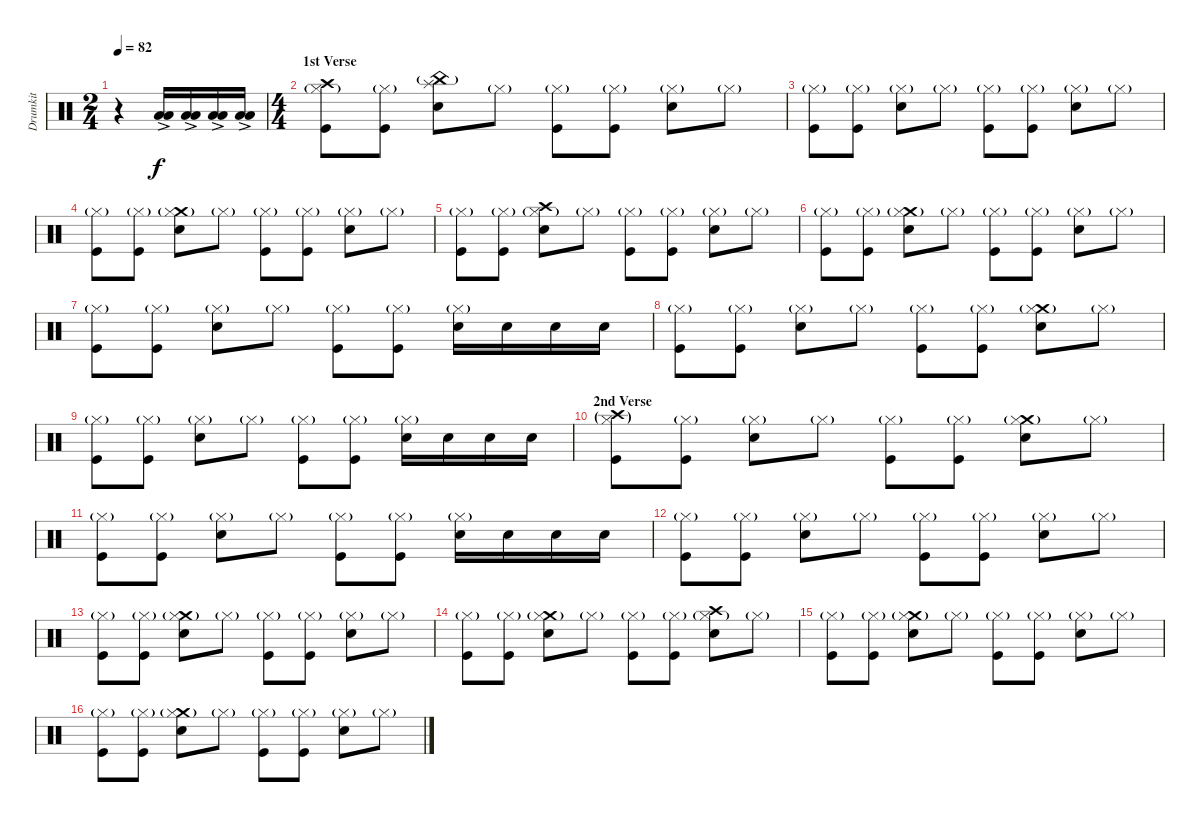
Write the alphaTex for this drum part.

\track ("Drumkit" "Drumkit") {instrument percussion}
\staff {score}
\articulation defaults
\ts (2 4)
\tempo 82
\clef neutral
\ks c
r.4{dy f} ("Low Tom (hit)" "Low Floor Tom (hit)"{ac}).16 ("Low Tom (hit)" "Low Floor Tom (hit)"{ac}).16 ("Low Tom (hit)" "Low Floor Tom (hit)"{ac}).16 ("Low Tom (hit)" "Low Floor Tom (hit)"{ac}).16 |
\ts (4 4)
\section ("" "1st Verse")
("Crash high (hit)" "Hi-Hat (closed)"{g} "Kick (hit)").8 ("Hi-Hat (closed)"{g} "Kick (hit)").8 ("China (hit)"{g} "Splash (hit)" "Snare (hit) 2").8 "Hi-Hat (closed)"{g}.8 ("Hi-Hat (closed)"{g} "Kick (hit)").8 ("Hi-Hat (closed)"{g} "Kick (hit)").8 ("Hi-Hat (closed)"{g} "Snare (hit) 2").8 "Hi-Hat (closed)"{g}.8 |
("Hi-Hat (closed)"{g} "Kick (hit)").8 ("Hi-Hat (closed)"{g} "Kick (hit)").8 ("Hi-Hat (closed)"{g} "Snare (hit) 2").8 "Hi-Hat (closed)"{g}.8 ("Hi-Hat (closed)"{g} "Kick (hit)").8 ("Hi-Hat (closed)"{g} "Kick (hit)").8 ("Hi-Hat (closed)"{g} "Snare (hit) 2").8 "Hi-Hat (closed)"{g}.8 |
("Hi-Hat (closed)"{g} "Kick (hit)").8 ("Hi-Hat (closed)"{g} "Kick (hit)").8 ("Crash medium (hit)" "Hi-Hat (closed)"{g} "Snare (hit) 2").8 "Hi-Hat (closed)"{g}.8 ("Hi-Hat (closed)"{g} "Kick (hit)").8 ("Hi-Hat (closed)"{g} "Kick (hit)").8 ("Hi-Hat (closed)"{g} "Snare (hit) 2").8 "Hi-Hat (closed)"{g}.8 |
("Hi-Hat (closed)"{g} "Kick (hit)").8 ("Hi-Hat (closed)"{g} "Kick (hit)").8 ("Crash high (hit)" "Hi-Hat (closed)"{g} "Snare (hit) 2").8 "Hi-Hat (closed)"{g}.8 ("Hi-Hat (closed)"{g} "Kick (hit)").8 ("Hi-Hat (closed)"{g} "Kick (hit)").8 ("Hi-Hat (closed)"{g} "Snare (hit) 2").8 "Hi-Hat (closed)"{g}.8 |
("Hi-Hat (closed)"{g} "Kick (hit)").8 ("Hi-Hat (closed)"{g} "Kick (hit)").8 ("Crash medium (hit)" "Hi-Hat (closed)"{g} "Snare (hit) 2").8 "Hi-Hat (closed)"{g}.8 ("Hi-Hat (closed)"{g} "Kick (hit)").8 ("Hi-Hat (closed)"{g} "Kick (hit)").8 ("Hi-Hat (closed)"{g} "Snare (hit) 2").8 "Hi-Hat (closed)"{g}.8 |
("Hi-Hat (closed)"{g} "Kick (hit)").8 ("Hi-Hat (closed)"{g} "Kick (hit)").8 ("Hi-Hat (closed)"{g} "Snare (hit) 2").8 "Hi-Hat (closed)"{g}.8 ("Hi-Hat (closed)"{g} "Kick (hit)").8 ("Hi-Hat (closed)"{g} "Kick (hit)").8 ("Hi-Hat (closed)"{g} "Snare (hit) 2").16 "Snare (hit) 2".16 "Snare (hit) 2".16 "Snare (hit) 2".16 |
("Hi-Hat (closed)"{g} "Kick (hit)").8 ("Hi-Hat (closed)"{g} "Kick (hit)").8 ("Hi-Hat (closed)"{g} "Snare (hit) 2").8 "Hi-Hat (closed)"{g}.8 ("Hi-Hat (closed)"{g} "Kick (hit)").8 ("Hi-Hat (closed)"{g} "Kick (hit)").8 ("Crash medium (hit)" "Hi-Hat (closed)"{g} "Snare (hit) 2").8 "Hi-Hat (closed)"{g}.8 |
("Hi-Hat (closed)"{g} "Kick (hit)").8 ("Hi-Hat (closed)"{g} "Kick (hit)").8 ("Hi-Hat (closed)"{g} "Snare (hit) 2").8 "Hi-Hat (closed)"{g}.8 ("Hi-Hat (closed)"{g} "Kick (hit)").8 ("Hi-Hat (closed)"{g} "Kick (hit)").8 ("Hi-Hat (closed)"{g} "Snare (hit) 2").16 "Snare (hit) 2".16 "Snare (hit) 2".16 "Snare (hit) 2".16 |
\section ("" "2nd Verse")
("Crash high (hit)"{g} "Hi-Hat (closed)"{g} "Kick (hit)").8 ("Hi-Hat (closed)"{g} "Kick (hit)").8 ("Hi-Hat (closed)"{g} "Snare (hit) 2").8 "Hi-Hat (closed)"{g}.8 ("Hi-Hat (closed)"{g} "Kick (hit)").8 ("Hi-Hat (closed)"{g} "Kick (hit)").8 ("Crash medium (hit)" "Hi-Hat (closed)"{g} "Snare (hit) 2").8 "Hi-Hat (closed)"{g}.8 |
("Hi-Hat (closed)"{g} "Kick (hit)").8 ("Hi-Hat (closed)"{g} "Kick (hit)").8 ("Hi-Hat (closed)"{g} "Snare (hit) 2").8 "Hi-Hat (closed)"{g}.8 ("Hi-Hat (closed)"{g} "Kick (hit)").8 ("Hi-Hat (closed)"{g} "Kick (hit)").8 ("Hi-Hat (closed)"{g} "Snare (hit) 2").16 "Snare (hit) 2".16 "Snare (hit) 2".16 "Snare (hit) 2".16 |
("Hi-Hat (closed)"{g} "Kick (hit)").8 ("Hi-Hat (closed)"{g} "Kick (hit)").8 ("Hi-Hat (closed)"{g} "Snare (hit) 2").8 "Hi-Hat (closed)"{g}.8 ("Hi-Hat (closed)"{g} "Kick (hit)").8 ("Hi-Hat (closed)"{g} "Kick (hit)").8 ("Hi-Hat (closed)"{g} "Snare (hit) 2").8 "Hi-Hat (closed)"{g}.8 |
("Hi-Hat (closed)"{g} "Kick (hit)").8 ("Hi-Hat (closed)"{g} "Kick (hit)").8 ("Crash medium (hit)" "Hi-Hat (closed)"{g} "Snare (hit) 2").8 "Hi-Hat (closed)"{g}.8 ("Hi-Hat (closed)"{g} "Kick (hit)").8 ("Hi-Hat (closed)"{g} "Kick (hit)").8 ("Hi-Hat (closed)"{g} "Snare (hit) 2").8 "Hi-Hat (closed)"{g}.8 |
("Hi-Hat (closed)"{g} "Kick (hit)").8 ("Hi-Hat (closed)"{g} "Kick (hit)").8 ("Crash medium (hit)" "Hi-Hat (closed)"{g} "Snare (hit) 2").8 "Hi-Hat (closed)"{g}.8 ("Hi-Hat (closed)"{g} "Kick (hit)").8 ("Hi-Hat (closed)"{g} "Kick (hit)").8 ("Crash high (hit)" "Hi-Hat (closed)"{g} "Snare (hit) 2").8 "Hi-Hat (closed)"{g}.8 |
("Hi-Hat (closed)"{g} "Kick (hit)").8 ("Hi-Hat (closed)"{g} "Kick (hit)").8 ("Crash medium (hit)" "Hi-Hat (closed)"{g} "Snare (hit) 2").8 "Hi-Hat (closed)"{g}.8 ("Hi-Hat (closed)"{g} "Kick (hit)").8 ("Hi-Hat (closed)"{g} "Kick (hit)").8 ("Hi-Hat (closed)"{g} "Snare (hit) 2").8 "Hi-Hat (closed)"{g}.8 |
("Hi-Hat (closed)"{g} "Kick (hit)").8 ("Hi-Hat (closed)"{g} "Kick (hit)").8 ("Crash medium (hit)" "Hi-Hat (closed)"{g} "Snare (hit) 2").8 "Hi-Hat (closed)"{g}.8 ("Hi-Hat (closed)"{g} "Kick (hit)").8 ("Hi-Hat (closed)"{g} "Kick (hit)").8 ("Hi-Hat (closed)"{g} "Snare (hit) 2").8 "Hi-Hat (closed)"{g}.8
